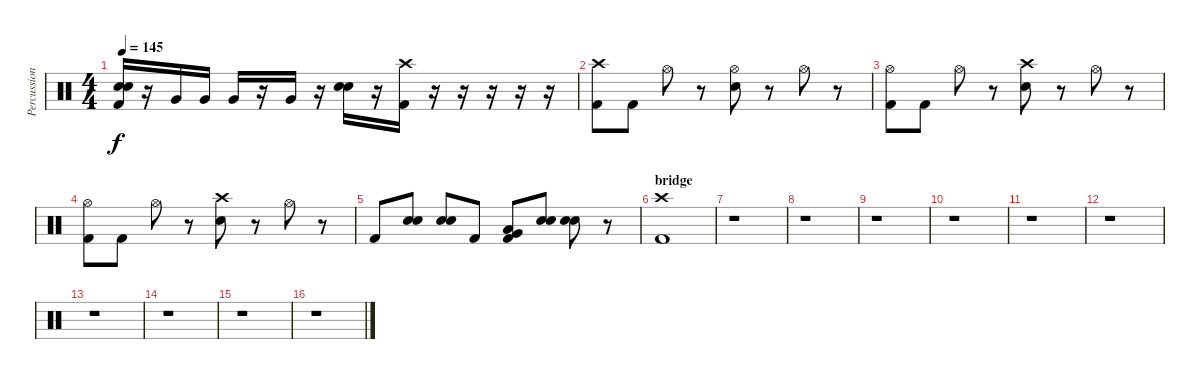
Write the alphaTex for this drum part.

\track ("Percussion" "Percussion") {instrument percussion}
\staff {score}
\articulation defaults
\ts (4 4)
\tempo 145
\clef neutral
\ks c
("Electric Snare (hit)" "Electric Snare (hit)" "Kick (hit) 2").16{dy f} r.16 "Very Low Tom (hit)".16 "Very Low Tom (hit)".16 "Very Low Tom (hit)".16 r.16 "Very Low Tom (hit)".16 r.16 ("Electric Snare (hit)" "Electric Snare (hit)").16 r.16 ("Crash high (hit)" "Kick (hit) 2").16 r.16 r.16 r.16 r.16 r.16 |
("Crash high (hit)" "Kick (hit) 2").8 "Kick (hit) 2".8 "Hi-Hat (open)".8 r.8 ("Hi-Hat (open)" "Electric Snare (hit)").8 r.8 "Hi-Hat (open)".8 r.8 |
("Hi-Hat (open)" "Kick (hit) 2").8 "Kick (hit) 2".8 "Hi-Hat (open)".8 r.8 ("Crash high (hit)" "Electric Snare (hit)").8 r.8 "Hi-Hat (open)".8 r.8 |
("Hi-Hat (open)" "Kick (hit) 2").8 "Kick (hit) 2".8 "Hi-Hat (open)".8 r.8 ("Crash high (hit)" "Electric Snare (hit)").8 r.8 "Hi-Hat (open)".8 r.8 |
"Kick (hit) 2".8 ("Electric Snare (hit)" "Electric Snare (hit)").8 ("Electric Snare (hit)" "Electric Snare (hit)").8 "Kick (hit) 2".8 ("Very Low Tom (hit)" "Low Tom (hit)" "Kick (hit) 2").8 ("Electric Snare (hit)" "Electric Snare (hit)").8 ("Electric Snare (hit)" "Electric Snare (hit)").8 r.8 |
\section ("" "bridge")
("Crash high (hit)" "Kick (hit) 2").1 |
r.1 |
r.1 |
r.1 |
r.1 |
r.1 |
r.1 |
r.1 |
r.1 |
r.1 |
r.1
